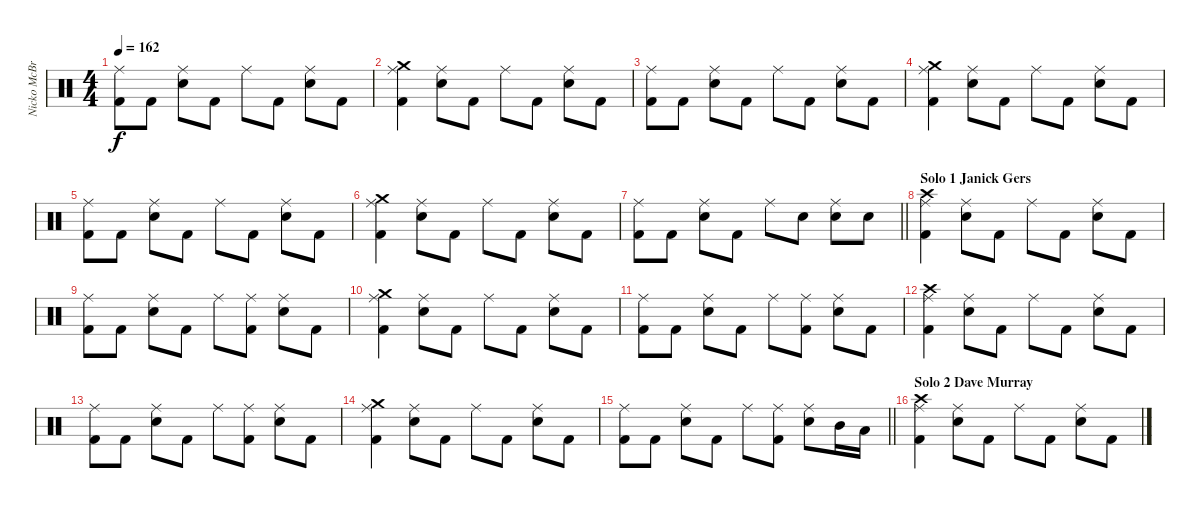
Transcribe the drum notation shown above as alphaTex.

\track ("Nicko McBrain" "Nicko McBr") {instrument percussion}
\staff {score}
\articulation defaults
\ts (4 4)
\tempo 162
\clef neutral
\ks c
("Kick (hit) 2" "Ride (middle)").8{dy f} "Kick (hit) 2".8 ("Electric Snare (hit)" "Ride (middle)").8 "Kick (hit) 2".8 "Ride (middle)".8 "Kick (hit) 2".8 ("Electric Snare (hit)" "Ride (middle)").8 "Kick (hit) 2".8 |
("Kick (hit) 2" "Ride (middle)" "Crash medium (hit)").4 ("Electric Snare (hit)" "Ride (middle)").8 "Kick (hit) 2".8 "Ride (middle)".8 "Kick (hit) 2".8 ("Electric Snare (hit)" "Ride (middle)").8 "Kick (hit) 2".8 |
("Kick (hit) 2" "Ride (middle)").8 "Kick (hit) 2".8 ("Electric Snare (hit)" "Ride (middle)").8 "Kick (hit) 2".8 "Ride (middle)".8 "Kick (hit) 2".8 ("Electric Snare (hit)" "Ride (middle)").8 "Kick (hit) 2".8 |
("Kick (hit) 2" "Ride (middle)" "Crash medium (hit)").4 ("Electric Snare (hit)" "Ride (middle)").8 "Kick (hit) 2".8 "Ride (middle)".8 "Kick (hit) 2".8 ("Electric Snare (hit)" "Ride (middle)").8 "Kick (hit) 2".8 |
("Kick (hit) 2" "Ride (middle)").8 "Kick (hit) 2".8 ("Electric Snare (hit)" "Ride (middle)").8 "Kick (hit) 2".8 "Ride (middle)".8 "Kick (hit) 2".8 ("Electric Snare (hit)" "Ride (middle)").8 "Kick (hit) 2".8 |
("Kick (hit) 2" "Ride (middle)" "Crash medium (hit)").4 ("Electric Snare (hit)" "Ride (middle)").8 "Kick (hit) 2".8 "Ride (middle)".8 "Kick (hit) 2".8 ("Electric Snare (hit)" "Ride (middle)").8 "Kick (hit) 2".8 |
\barLineRight lightlight
("Kick (hit) 2" "Ride (middle)").8 "Kick (hit) 2".8 ("Electric Snare (hit)" "Ride (middle)").8 "Kick (hit) 2".8 "Ride (middle)".8 "Electric Snare (hit)".8 ("Electric Snare (hit)" "Ride (middle)").8 "Electric Snare (hit)".8 |
\section ("" "Solo 1 Janick Gers")
("Kick (hit) 2" "Ride (middle)" "Crash high (hit)").4 ("Electric Snare (hit)" "Ride (middle)").8 "Kick (hit) 2".8 "Ride (middle)".8 "Kick (hit) 2".8 ("Electric Snare (hit)" "Ride (middle)").8 "Kick (hit) 2".8 |
("Kick (hit) 2" "Ride (middle)").8 "Kick (hit) 2".8 ("Electric Snare (hit)" "Ride (middle)").8 "Kick (hit) 2".8 "Ride (middle)".8 ("Kick (hit) 2" "Ride (middle)").8 ("Electric Snare (hit)" "Ride (middle)").8 "Kick (hit) 2".8 |
("Kick (hit) 2" "Ride (middle)" "Crash medium (hit)").4 ("Electric Snare (hit)" "Ride (middle)").8 "Kick (hit) 2".8 "Ride (middle)".8 "Kick (hit) 2".8 ("Electric Snare (hit)" "Ride (middle)").8 "Kick (hit) 2".8 |
("Kick (hit) 2" "Ride (middle)").8 "Kick (hit) 2".8 ("Electric Snare (hit)" "Ride (middle)").8 "Kick (hit) 2".8 "Ride (middle)".8 ("Kick (hit) 2" "Ride (middle)").8 ("Electric Snare (hit)" "Ride (middle)").8 "Kick (hit) 2".8 |
("Kick (hit) 2" "Ride (middle)" "Crash high (hit)").4 ("Electric Snare (hit)" "Ride (middle)").8 "Kick (hit) 2".8 "Ride (middle)".8 "Kick (hit) 2".8 ("Electric Snare (hit)" "Ride (middle)").8 "Kick (hit) 2".8 |
("Kick (hit) 2" "Ride (middle)").8 "Kick (hit) 2".8 ("Electric Snare (hit)" "Ride (middle)").8 "Kick (hit) 2".8 "Ride (middle)".8 ("Kick (hit) 2" "Ride (middle)").8 ("Electric Snare (hit)" "Ride (middle)").8 "Kick (hit) 2".8 |
("Kick (hit) 2" "Ride (middle)" "Crash medium (hit)").4 ("Electric Snare (hit)" "Ride (middle)").8 "Kick (hit) 2".8 "Ride (middle)".8 "Kick (hit) 2".8 ("Electric Snare (hit)" "Ride (middle)").8 "Kick (hit) 2".8 |
\barLineRight lightlight
("Kick (hit) 2" "Ride (middle)").8 "Kick (hit) 2".8 ("Electric Snare (hit)" "Ride (middle)").8 "Kick (hit) 2".8 "Ride (middle)".8 ("Kick (hit) 2" "Ride (middle)").8 ("Electric Snare (hit)" "Ride (middle)").8 "Mid Tom (hit)".16 "Low Tom (hit)".16 |
\section ("" "Solo 2 Dave Murray")
("Kick (hit) 2" "Ride (middle)" "Crash high (hit)").4 ("Electric Snare (hit)" "Ride (middle)").8 "Kick (hit) 2".8 "Ride (middle)".8 "Kick (hit) 2".8 ("Electric Snare (hit)" "Ride (middle)").8 "Kick (hit) 2".8
